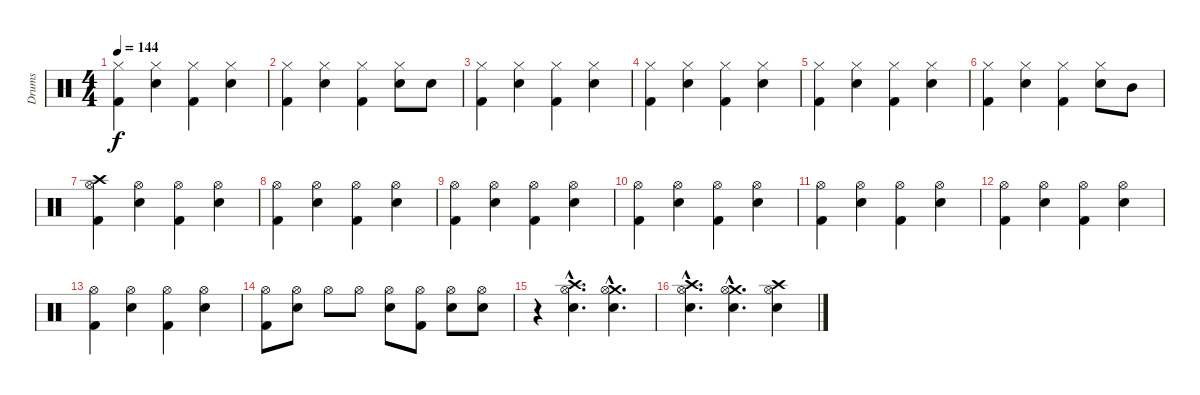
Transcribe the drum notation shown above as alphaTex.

\track ("Drums" "Drums") {instrument percussion}
\staff {score}
\articulation defaults
\ts (4 4)
\tempo 144
\clef neutral
\ks c
("Hi-Hat (closed)" "Kick (hit) 2").4{dy f} ("Hi-Hat (closed)" "Electric Snare (hit)").4 ("Hi-Hat (closed)" "Kick (hit) 2").4 ("Hi-Hat (closed)" "Electric Snare (hit)").4 |
("Hi-Hat (closed)" "Kick (hit) 2").4 ("Hi-Hat (closed)" "Electric Snare (hit)").4 ("Hi-Hat (closed)" "Kick (hit) 2").4 ("Hi-Hat (closed)" "Electric Snare (hit)").8 "Electric Snare (hit)".8 |
("Hi-Hat (closed)" "Kick (hit) 2").4 ("Hi-Hat (closed)" "Electric Snare (hit)").4 ("Hi-Hat (closed)" "Kick (hit) 2").4 ("Hi-Hat (closed)" "Electric Snare (hit)").4 |
("Hi-Hat (closed)" "Kick (hit) 2").4 ("Hi-Hat (closed)" "Electric Snare (hit)").4 ("Hi-Hat (closed)" "Kick (hit) 2").4 ("Hi-Hat (closed)" "Electric Snare (hit)").4 |
("Hi-Hat (closed)" "Kick (hit) 2").4 ("Hi-Hat (closed)" "Electric Snare (hit)").4 ("Hi-Hat (closed)" "Kick (hit) 2").4 ("Hi-Hat (closed)" "Electric Snare (hit)").4 |
("Hi-Hat (closed)" "Kick (hit) 2").4 ("Hi-Hat (closed)" "Electric Snare (hit)").4 ("Hi-Hat (closed)" "Kick (hit) 2").4 ("Hi-Hat (closed)" "Electric Snare (hit)").8 "Mid Tom (hit)".8 |
("Crash high (hit)" "Hi-Hat (open)" "Kick (hit) 2").4 ("Hi-Hat (open)" "Electric Snare (hit)").4 ("Hi-Hat (open)" "Kick (hit) 2").4 ("Hi-Hat (open)" "Electric Snare (hit)").4 |
("Hi-Hat (open)" "Kick (hit) 2").4 ("Hi-Hat (open)" "Electric Snare (hit)").4 ("Hi-Hat (open)" "Kick (hit) 2").4 ("Hi-Hat (open)" "Electric Snare (hit)").4 |
("Hi-Hat (open)" "Kick (hit) 2").4 ("Hi-Hat (open)" "Electric Snare (hit)").4 ("Hi-Hat (open)" "Kick (hit) 2").4 ("Hi-Hat (open)" "Electric Snare (hit)").4 |
("Hi-Hat (open)" "Kick (hit) 2").4 ("Hi-Hat (open)" "Electric Snare (hit)").4 ("Hi-Hat (open)" "Kick (hit) 2").4 ("Hi-Hat (open)" "Electric Snare (hit)").4 |
("Hi-Hat (open)" "Kick (hit) 2").4 ("Hi-Hat (open)" "Electric Snare (hit)").4 ("Hi-Hat (open)" "Kick (hit) 2").4 ("Hi-Hat (open)" "Electric Snare (hit)").4 |
("Hi-Hat (open)" "Kick (hit) 2").4 ("Hi-Hat (open)" "Electric Snare (hit)").4 ("Hi-Hat (open)" "Kick (hit) 2").4 ("Hi-Hat (open)" "Electric Snare (hit)").4 |
("Hi-Hat (open)" "Kick (hit) 2").4 ("Hi-Hat (open)" "Electric Snare (hit)").4 ("Hi-Hat (open)" "Kick (hit) 2").4 ("Hi-Hat (open)" "Electric Snare (hit)").4 |
("Hi-Hat (open)" "Kick (hit) 2").8 ("Hi-Hat (open)" "Electric Snare (hit)").8 "Hi-Hat (open)".8 "Hi-Hat (open)".8 ("Hi-Hat (open)" "Electric Snare (hit)").8 ("Hi-Hat (open)" "Kick (hit) 2").8 ("Hi-Hat (open)" "Electric Snare (hit)").8 ("Hi-Hat (open)" "Electric Snare (hit)").8 |
r.4 ("Crash high (hit)"{hac} "Hi-Hat (open)"{hac} "Electric Snare (hit)"{hac}).4{d} ("Crash medium (hit)"{hac} "Hi-Hat (open)"{hac} "Electric Snare (hit)"{hac}).4{d} |
("Crash high (hit)"{hac} "Hi-Hat (open)"{hac} "Electric Snare (hit)"{hac}).4{d} ("Crash medium (hit)"{hac} "Hi-Hat (open)"{hac} "Electric Snare (hit)"{hac}).4{d} ("Crash high (hit)" "Hi-Hat (open)" "Electric Snare (hit)").4
